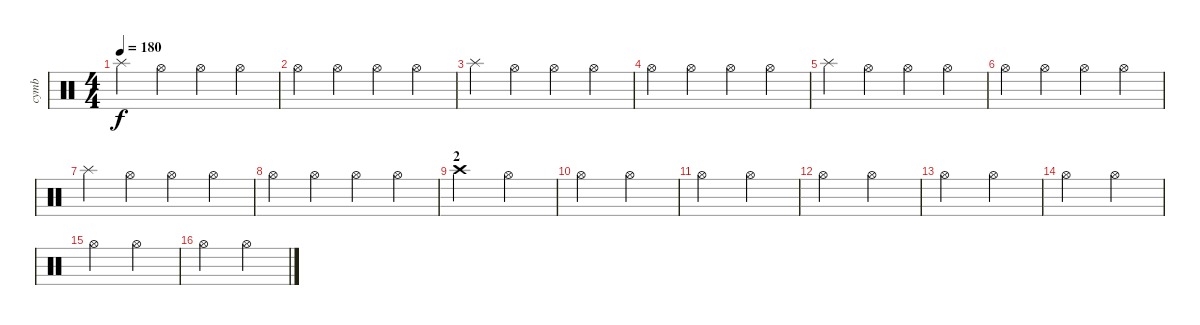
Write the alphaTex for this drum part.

\track ("cymb" "cymb") {instrument percussion}
\staff {score}
\articulation defaults
\ts (4 4)
\tempo 180
\clef neutral
\ks c "Splash (hit)".4{dy f} "Hi-Hat (open)".4 "Hi-Hat (open)".4 "Hi-Hat (open)".4
|
"Hi-Hat (open)".4 "Hi-Hat (open)".4 "Hi-Hat (open)".4 "Hi-Hat (open)".4 |
"Splash (hit)".4 "Hi-Hat (open)".4 "Hi-Hat (open)".4 "Hi-Hat (open)".4 |
"Hi-Hat (open)".4 "Hi-Hat (open)".4 "Hi-Hat (open)".4 "Hi-Hat (open)".4 |
"Splash (hit)".4 "Hi-Hat (open)".4 "Hi-Hat (open)".4 "Hi-Hat (open)".4 |
"Hi-Hat (open)".4 "Hi-Hat (open)".4 "Hi-Hat (open)".4 "Hi-Hat (open)".4 |
"Splash (hit)".4 "Hi-Hat (open)".4 "Hi-Hat (open)".4 "Hi-Hat (open)".4 |
"Hi-Hat (open)".4 "Hi-Hat (open)".4 "Hi-Hat (open)".4 "Hi-Hat (open)".4 |
\section ("" "2")
"Crash high (hit)".2 "Hi-Hat (open)".2 |
"Hi-Hat (open)".2 "Hi-Hat (open)".2 |
"Hi-Hat (open)".2 "Hi-Hat (open)".2 |
"Hi-Hat (open)".2 "Hi-Hat (open)".2 |
"Hi-Hat (open)".2 "Hi-Hat (open)".2 |
"Hi-Hat (open)".2 "Hi-Hat (open)".2 |
"Hi-Hat (open)".2 "Hi-Hat (open)".2 |
"Hi-Hat (open)".2 "Hi-Hat (open)".2
